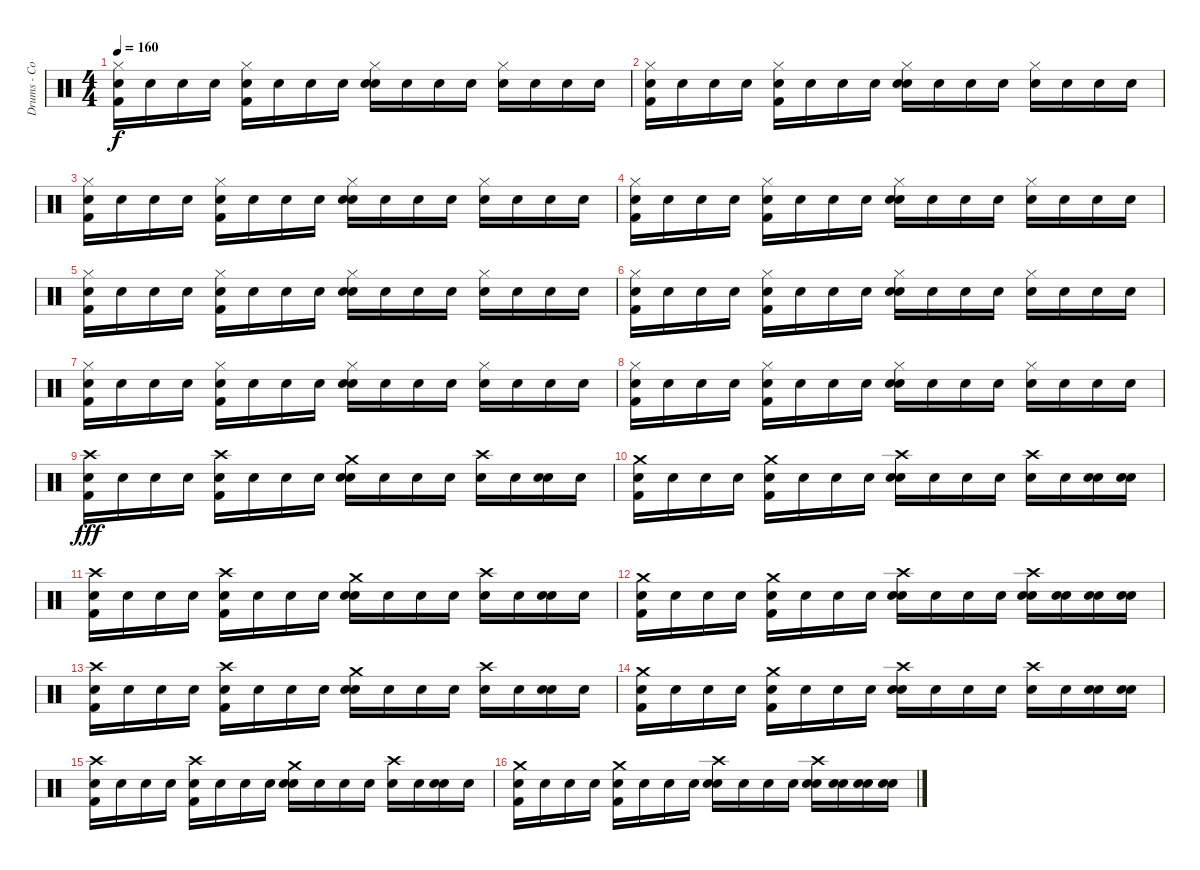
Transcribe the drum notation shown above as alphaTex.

\track ("Drums - Colby" "Drums - Co") {instrument percussion}
\staff {score}
\articulation defaults
\ts (4 4)
\tempo 160
\clef neutral
\ks c
("Snare (hit)" "Kick (hit) 2" "Hi-Hat (closed)").16{dy f} "Snare (hit)".16 "Snare (hit)".16 "Snare (hit)".16 ("Snare (hit)" "Kick (hit) 2" "Hi-Hat (closed)").16 "Snare (hit)".16 "Snare (hit)".16 "Snare (hit)".16 ("Snare (hit)" "Snare (hit) 2" "Hi-Hat (closed)").16 "Snare (hit)".16 "Snare (hit)".16 "Snare (hit)".16 ("Snare (hit)" "Hi-Hat (closed)").16 "Snare (hit)".16 "Snare (hit)".16 "Snare (hit)".16 |
("Snare (hit)" "Kick (hit) 2" "Hi-Hat (closed)").16 "Snare (hit)".16 "Snare (hit)".16 "Snare (hit)".16 ("Snare (hit)" "Kick (hit) 2" "Hi-Hat (closed)").16 "Snare (hit)".16 "Snare (hit)".16 "Snare (hit)".16 ("Snare (hit)" "Snare (hit) 2" "Hi-Hat (closed)").16 "Snare (hit)".16 "Snare (hit)".16 "Snare (hit)".16 ("Snare (hit)" "Hi-Hat (closed)").16 "Snare (hit)".16 "Snare (hit)".16 "Snare (hit)".16 |
("Snare (hit)" "Kick (hit) 2" "Hi-Hat (closed)").16 "Snare (hit)".16 "Snare (hit)".16 "Snare (hit)".16 ("Snare (hit)" "Kick (hit) 2" "Hi-Hat (closed)").16 "Snare (hit)".16 "Snare (hit)".16 "Snare (hit)".16 ("Snare (hit)" "Snare (hit) 2" "Hi-Hat (closed)").16 "Snare (hit)".16 "Snare (hit)".16 "Snare (hit)".16 ("Snare (hit)" "Hi-Hat (closed)").16 "Snare (hit)".16 "Snare (hit)".16 "Snare (hit)".16 |
("Snare (hit)" "Kick (hit) 2" "Hi-Hat (closed)").16 "Snare (hit)".16 "Snare (hit)".16 "Snare (hit)".16 ("Snare (hit)" "Kick (hit) 2" "Hi-Hat (closed)").16 "Snare (hit)".16 "Snare (hit)".16 "Snare (hit)".16 ("Snare (hit)" "Snare (hit) 2" "Hi-Hat (closed)").16 "Snare (hit)".16 "Snare (hit)".16 "Snare (hit)".16 ("Snare (hit)" "Hi-Hat (closed)").16 "Snare (hit)".16 "Snare (hit)".16 "Snare (hit)".16 |
("Snare (hit)" "Kick (hit) 2" "Hi-Hat (closed)").16 "Snare (hit)".16 "Snare (hit)".16 "Snare (hit)".16 ("Snare (hit)" "Kick (hit) 2" "Hi-Hat (closed)").16 "Snare (hit)".16 "Snare (hit)".16 "Snare (hit)".16 ("Snare (hit)" "Snare (hit) 2" "Hi-Hat (closed)").16 "Snare (hit)".16 "Snare (hit)".16 "Snare (hit)".16 ("Snare (hit)" "Hi-Hat (closed)").16 "Snare (hit)".16 "Snare (hit)".16 "Snare (hit)".16 |
("Snare (hit)" "Kick (hit) 2" "Hi-Hat (closed)").16 "Snare (hit)".16 "Snare (hit)".16 "Snare (hit)".16 ("Snare (hit)" "Kick (hit) 2" "Hi-Hat (closed)").16 "Snare (hit)".16 "Snare (hit)".16 "Snare (hit)".16 ("Snare (hit)" "Snare (hit) 2" "Hi-Hat (closed)").16 "Snare (hit)".16 "Snare (hit)".16 "Snare (hit)".16 ("Snare (hit)" "Hi-Hat (closed)").16 "Snare (hit)".16 "Snare (hit)".16 "Snare (hit)".16 |
("Snare (hit)" "Kick (hit) 2" "Hi-Hat (closed)").16 "Snare (hit)".16 "Snare (hit)".16 "Snare (hit)".16 ("Snare (hit)" "Kick (hit) 2" "Hi-Hat (closed)").16 "Snare (hit)".16 "Snare (hit)".16 "Snare (hit)".16 ("Snare (hit)" "Snare (hit) 2" "Hi-Hat (closed)").16 "Snare (hit)".16 "Snare (hit)".16 "Snare (hit)".16 ("Snare (hit)" "Hi-Hat (closed)").16 "Snare (hit)".16 "Snare (hit)".16 "Snare (hit)".16 |
("Snare (hit)" "Kick (hit) 2" "Hi-Hat (closed)").16 "Snare (hit)".16 "Snare (hit)".16 "Snare (hit)".16 ("Snare (hit)" "Kick (hit) 2" "Hi-Hat (closed)").16 "Snare (hit)".16 "Snare (hit)".16 "Snare (hit)".16 ("Snare (hit)" "Snare (hit) 2" "Hi-Hat (closed)").16 "Snare (hit)".16 "Snare (hit)".16 "Snare (hit)".16 ("Snare (hit)" "Hi-Hat (closed)").16 "Snare (hit)".16 "Snare (hit)".16 "Snare (hit)".16 |
("Snare (hit)" "Kick (hit) 2" "Crash high (hit)").16{dy fff} "Snare (hit)".16 "Snare (hit)".16 "Snare (hit)".16 ("Snare (hit)" "Kick (hit) 2" "Crash high (hit)").16 "Snare (hit)".16 "Snare (hit)".16 "Snare (hit)".16 ("Snare (hit)" "Snare (hit) 2" "Crash medium (hit)").16 "Snare (hit)".16 "Snare (hit)".16 "Snare (hit)".16 ("Snare (hit)" "Crash high (hit)").16 "Snare (hit)".16 ("Snare (hit)" "Snare (hit) 2").16 "Snare (hit)".16 |
("Snare (hit)" "Kick (hit) 2" "Crash medium (hit)").16 "Snare (hit)".16 "Snare (hit)".16 "Snare (hit)".16 ("Snare (hit)" "Kick (hit) 2" "Crash medium (hit)").16 "Snare (hit)".16 "Snare (hit)".16 "Snare (hit)".16 ("Snare (hit)" "Snare (hit) 2" "Crash high (hit)").16 "Snare (hit)".16 "Snare (hit)".16 "Snare (hit)".16 ("Snare (hit)" "Crash high (hit)").16 "Snare (hit)".16 ("Snare (hit)" "Snare (hit) 2").16 ("Snare (hit)" "Snare (hit) 2").16 |
("Snare (hit)" "Kick (hit) 2" "Crash high (hit)").16 "Snare (hit)".16 "Snare (hit)".16 "Snare (hit)".16 ("Snare (hit)" "Kick (hit) 2" "Crash high (hit)").16 "Snare (hit)".16 "Snare (hit)".16 "Snare (hit)".16 ("Snare (hit)" "Snare (hit) 2" "Crash medium (hit)").16 "Snare (hit)".16 "Snare (hit)".16 "Snare (hit)".16 ("Snare (hit)" "Crash high (hit)").16 "Snare (hit)".16 ("Snare (hit)" "Snare (hit) 2").16 "Snare (hit)".16 |
("Snare (hit)" "Kick (hit) 2" "Crash medium (hit)").16 "Snare (hit)".16 "Snare (hit)".16 "Snare (hit)".16 ("Snare (hit)" "Kick (hit) 2" "Crash medium (hit)").16 "Snare (hit)".16 "Snare (hit)".16 "Snare (hit)".16 ("Snare (hit)" "Snare (hit) 2" "Crash high (hit)").16 "Snare (hit)".16 "Snare (hit)".16 "Snare (hit)".16 ("Snare (hit)" "Snare (hit) 2" "Crash high (hit)").16 ("Snare (hit)" "Snare (hit) 2").16 ("Snare (hit)" "Snare (hit) 2").16 ("Snare (hit)" "Snare (hit) 2").16 |
("Snare (hit)" "Kick (hit) 2" "Crash high (hit)").16 "Snare (hit)".16 "Snare (hit)".16 "Snare (hit)".16 ("Snare (hit)" "Kick (hit) 2" "Crash high (hit)").16 "Snare (hit)".16 "Snare (hit)".16 "Snare (hit)".16 ("Snare (hit)" "Snare (hit) 2" "Crash medium (hit)").16 "Snare (hit)".16 "Snare (hit)".16 "Snare (hit)".16 ("Snare (hit)" "Crash high (hit)").16 "Snare (hit)".16 ("Snare (hit)" "Snare (hit) 2").16 "Snare (hit)".16 |
("Snare (hit)" "Kick (hit) 2" "Crash medium (hit)").16 "Snare (hit)".16 "Snare (hit)".16 "Snare (hit)".16 ("Snare (hit)" "Kick (hit) 2" "Crash medium (hit)").16 "Snare (hit)".16 "Snare (hit)".16 "Snare (hit)".16 ("Snare (hit)" "Snare (hit) 2" "Crash high (hit)").16 "Snare (hit)".16 "Snare (hit)".16 "Snare (hit)".16 ("Snare (hit)" "Crash high (hit)").16 "Snare (hit)".16 ("Snare (hit)" "Snare (hit) 2").16 ("Snare (hit)" "Snare (hit) 2").16 |
("Snare (hit)" "Kick (hit) 2" "Crash high (hit)").16 "Snare (hit)".16 "Snare (hit)".16 "Snare (hit)".16 ("Snare (hit)" "Kick (hit) 2" "Crash high (hit)").16 "Snare (hit)".16 "Snare (hit)".16 "Snare (hit)".16 ("Snare (hit)" "Snare (hit) 2" "Crash medium (hit)").16 "Snare (hit)".16 "Snare (hit)".16 "Snare (hit)".16 ("Snare (hit)" "Crash high (hit)").16 "Snare (hit)".16 ("Snare (hit)" "Snare (hit) 2").16 "Snare (hit)".16 |
("Snare (hit)" "Kick (hit) 2" "Crash medium (hit)").16 "Snare (hit)".16 "Snare (hit)".16 "Snare (hit)".16 ("Snare (hit)" "Kick (hit) 2" "Crash medium (hit)").16 "Snare (hit)".16 "Snare (hit)".16 "Snare (hit)".16 ("Snare (hit)" "Snare (hit) 2" "Crash high (hit)").16 "Snare (hit)".16 "Snare (hit)".16 "Snare (hit)".16 ("Snare (hit)" "Snare (hit) 2" "Crash high (hit)").16 ("Snare (hit)" "Snare (hit) 2").16 ("Snare (hit)" "Snare (hit) 2").16 ("Snare (hit)" "Snare (hit) 2").16
